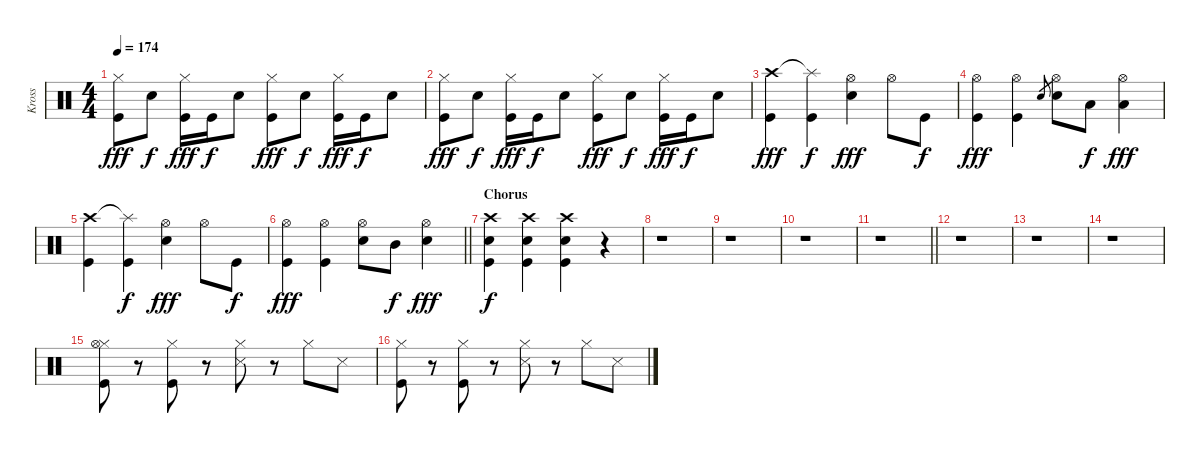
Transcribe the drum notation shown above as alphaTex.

\track ("Kross" "Kross") {instrument percussion}
\staff {score}
\articulation defaults
\ts (4 4)
\tempo 174
\clef neutral
\ks c
("Hi-Hat (closed)" "Kick (hit)").8{dy fff} "Snare (hit) 2".8{dy f} ("Hi-Hat (closed)" "Kick (hit)").16{dy fff} "Kick (hit)".16{dy f} "Snare (hit) 2".8 ("Hi-Hat (closed)" "Kick (hit)").8{dy fff} "Snare (hit) 2".8{dy f} ("Hi-Hat (closed)" "Kick (hit)").16{dy fff} "Kick (hit)".16{dy f} "Snare (hit) 2".8 |
("Hi-Hat (closed)" "Kick (hit)").8{dy fff} "Snare (hit) 2".8{dy f} ("Hi-Hat (closed)" "Kick (hit)").16{dy fff} "Kick (hit)".16{dy f} "Snare (hit) 2".8 ("Hi-Hat (closed)" "Kick (hit)").8{dy fff} "Snare (hit) 2".8{dy f} ("Hi-Hat (closed)" "Kick (hit)").16{dy fff} "Kick (hit)".16{dy f} "Snare (hit) 2".8 |
("Crash high (hit)" "Kick (hit)").4{dy fff} ("Splash (hit)"{t} "Kick (hit)").4{dy f} ("Hi-Hat (open)" "Snare (hit) 2").4{dy fff} "Hi-Hat (open)".8 "Kick (hit)".8{dy f} |
("Hi-Hat (open)" "Kick (hit)").4{dy fff} ("Hi-Hat (open)" "Kick (hit)").4 "Snare (hit) 2".8{gr} ("Hi-Hat (open)" "Snare (hit) 2").8 "Low Tom (hit)".8{dy f} ("Hi-Hat (open)" "Low Floor Tom (hit)").4{dy fff} |
("Crash high (hit)" "Kick (hit)").4 ("Splash (hit)"{t} "Kick (hit)").4{dy f} ("Hi-Hat (open)" "Snare (hit) 2").4{dy fff} "Hi-Hat (open)".8 "Kick (hit)".8{dy f} |
\barLineRight lightlight
("Hi-Hat (open)" "Kick (hit)").4{dy fff} ("Hi-Hat (open)" "Kick (hit)").4 ("Hi-Hat (open)" "Snare (hit) 2").8 "Mid Tom (hit)".8{dy f} ("Hi-Hat (open)" "Snare (hit) 2").4{dy fff} |
\section ("" "Chorus")
("Crash high (hit)" "Snare (hit) 2" "Kick (hit)").4{dy f} ("Crash high (hit)" "Snare (hit) 2" "Kick (hit)").4 ("Crash high (hit)" "Snare (hit) 2" "Kick (hit)").4 r.4 |
r.1 |
r.1 |
r.1 |
\barLineRight lightlight
r.1 |
r.1 |
r.1 |
r.1 |
("Hi-Hat (closed)" "Hi-Hat (open)" "Kick (hit)").8 r.8 ("Hi-Hat (closed)" "Kick (hit)").8 r.8 ("Hi-Hat (closed)" "Snare (side stick) 3").8 r.8 "Hi-Hat (closed)".8 "Snare (side stick) 3".8 |
("Hi-Hat (closed)" "Kick (hit)").8 r.8 ("Hi-Hat (closed)" "Kick (hit)").8 r.8 ("Hi-Hat (closed)" "Snare (side stick) 3").8 r.8 "Hi-Hat (closed)".8 "Snare (side stick) 3".8
